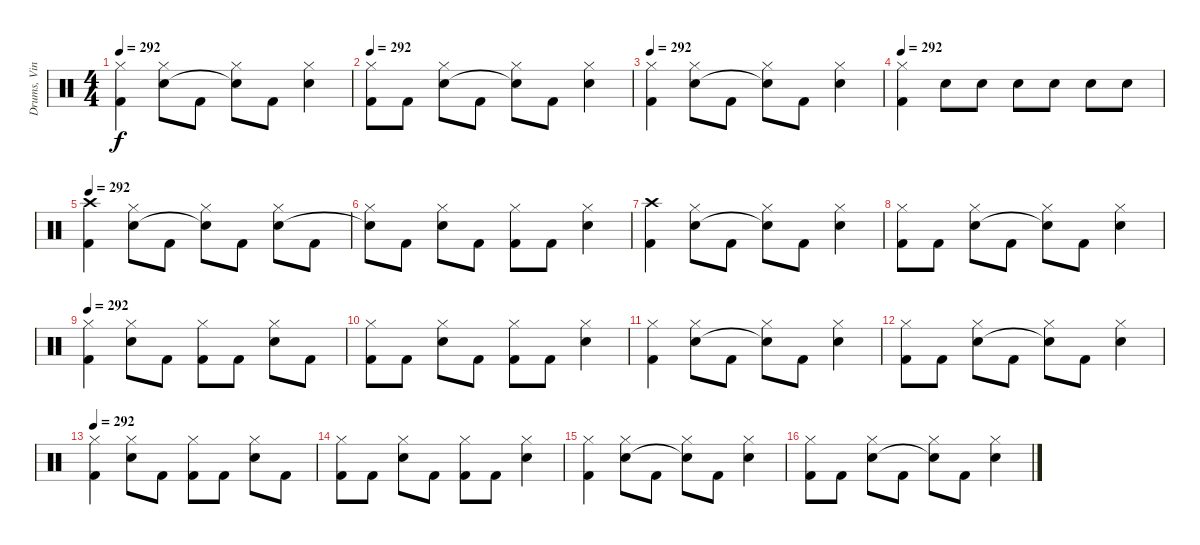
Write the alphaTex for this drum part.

\track ("Drums, Vinnie" "Drums, Vin") {instrument percussion}
\staff {score}
\articulation defaults
\ts (4 4)
\tempo 292
\clef neutral
\ks c
("Hi-Hat (closed)" "Kick (hit) 2").4{dy f} ("Hi-Hat (closed)" "Electric Snare (hit)").8 "Kick (hit) 2".8 ("Hi-Hat (closed)" "Snare (hit)"{t}).8 "Kick (hit) 2".8 ("Hi-Hat (closed)" "Electric Snare (hit)").4 |
\tempo 292
("Hi-Hat (closed)" "Kick (hit) 2").8 "Kick (hit) 2".8 ("Hi-Hat (closed)" "Electric Snare (hit)").8 "Kick (hit) 2".8 ("Hi-Hat (closed)" "Snare (hit)"{t}).8 "Kick (hit) 2".8 ("Hi-Hat (closed)" "Electric Snare (hit)").4 |
\tempo 292
("Hi-Hat (closed)" "Kick (hit) 2").4 ("Hi-Hat (closed)" "Electric Snare (hit)").8 "Kick (hit) 2".8 ("Hi-Hat (closed)" "Snare (hit)"{t}).8 "Kick (hit) 2".8 ("Hi-Hat (closed)" "Electric Snare (hit)").4 |
\tempo 292
("Hi-Hat (closed)" "Kick (hit) 2").4 "Electric Snare (hit)".8 "Electric Snare (hit)".8 "Electric Snare (hit)".8 "Electric Snare (hit)".8 "Electric Snare (hit)".8 "Electric Snare (hit)".8 |
\tempo 292
("Crash high (hit)" "Kick (hit) 2").4 ("Hi-Hat (closed)" "Electric Snare (hit)").8 "Kick (hit) 2".8 ("Hi-Hat (closed)" "Snare (hit)"{t}).8 "Kick (hit) 2".8 ("Hi-Hat (closed)" "Electric Snare (hit)").8 "Kick (hit) 2".8 |
("Hi-Hat (closed)" "Snare (hit)"{t}).8 "Kick (hit) 2".8 ("Hi-Hat (closed)" "Electric Snare (hit)").8 "Kick (hit) 2".8 ("Hi-Hat (closed)" "Kick (hit) 2").8 "Kick (hit) 2".8 ("Hi-Hat (closed)" "Electric Snare (hit)").4 |
("Crash high (hit)" "Kick (hit) 2").4 ("Hi-Hat (closed)" "Electric Snare (hit)").8 "Kick (hit) 2".8 ("Hi-Hat (closed)" "Snare (hit)"{t}).8 "Kick (hit) 2".8 ("Hi-Hat (closed)" "Electric Snare (hit)").4 |
("Hi-Hat (closed)" "Kick (hit) 2").8 "Kick (hit) 2".8 ("Hi-Hat (closed)" "Electric Snare (hit)").8 "Kick (hit) 2".8 ("Hi-Hat (closed)" "Snare (hit)"{t}).8 "Kick (hit) 2".8 ("Hi-Hat (closed)" "Electric Snare (hit)").4 |
\tempo 292
("Hi-Hat (closed)" "Kick (hit) 2").4 ("Hi-Hat (closed)" "Electric Snare (hit)").8 "Kick (hit) 2".8 ("Hi-Hat (closed)" "Kick (hit) 2").8 "Kick (hit) 2".8 ("Hi-Hat (closed)" "Electric Snare (hit)").8 "Kick (hit) 2".8 |
("Hi-Hat (closed)" "Kick (hit) 2").8 "Kick (hit) 2".8 ("Hi-Hat (closed)" "Electric Snare (hit)").8 "Kick (hit) 2".8 ("Hi-Hat (closed)" "Kick (hit) 2").8 "Kick (hit) 2".8 ("Hi-Hat (closed)" "Electric Snare (hit)").4 |
("Hi-Hat (closed)" "Kick (hit) 2").4 ("Hi-Hat (closed)" "Electric Snare (hit)").8 "Kick (hit) 2".8 ("Hi-Hat (closed)" "Snare (hit)"{t}).8 "Kick (hit) 2".8 ("Hi-Hat (closed)" "Electric Snare (hit)").4 |
("Hi-Hat (closed)" "Kick (hit) 2").8 "Kick (hit) 2".8 ("Hi-Hat (closed)" "Electric Snare (hit)").8 "Kick (hit) 2".8 ("Hi-Hat (closed)" "Snare (hit)"{t}).8 "Kick (hit) 2".8 ("Hi-Hat (closed)" "Electric Snare (hit)").4 |
\tempo 292
("Hi-Hat (closed)" "Kick (hit) 2").4 ("Hi-Hat (closed)" "Electric Snare (hit)").8 "Kick (hit) 2".8 ("Hi-Hat (closed)" "Kick (hit) 2").8 "Kick (hit) 2".8 ("Hi-Hat (closed)" "Electric Snare (hit)").8 "Kick (hit) 2".8 |
("Hi-Hat (closed)" "Kick (hit) 2").8 "Kick (hit) 2".8 ("Hi-Hat (closed)" "Electric Snare (hit)").8 "Kick (hit) 2".8 ("Hi-Hat (closed)" "Kick (hit) 2").8 "Kick (hit) 2".8 ("Hi-Hat (closed)" "Electric Snare (hit)").4 |
("Hi-Hat (closed)" "Kick (hit) 2").4 ("Hi-Hat (closed)" "Electric Snare (hit)").8 "Kick (hit) 2".8 ("Hi-Hat (closed)" "Snare (hit)"{t}).8 "Kick (hit) 2".8 ("Hi-Hat (closed)" "Electric Snare (hit)").4 |
("Hi-Hat (closed)" "Kick (hit) 2").8 "Kick (hit) 2".8 ("Hi-Hat (closed)" "Electric Snare (hit)").8 "Kick (hit) 2".8 ("Hi-Hat (closed)" "Snare (hit)"{t}).8 "Kick (hit) 2".8 ("Hi-Hat (closed)" "Electric Snare (hit)").4
